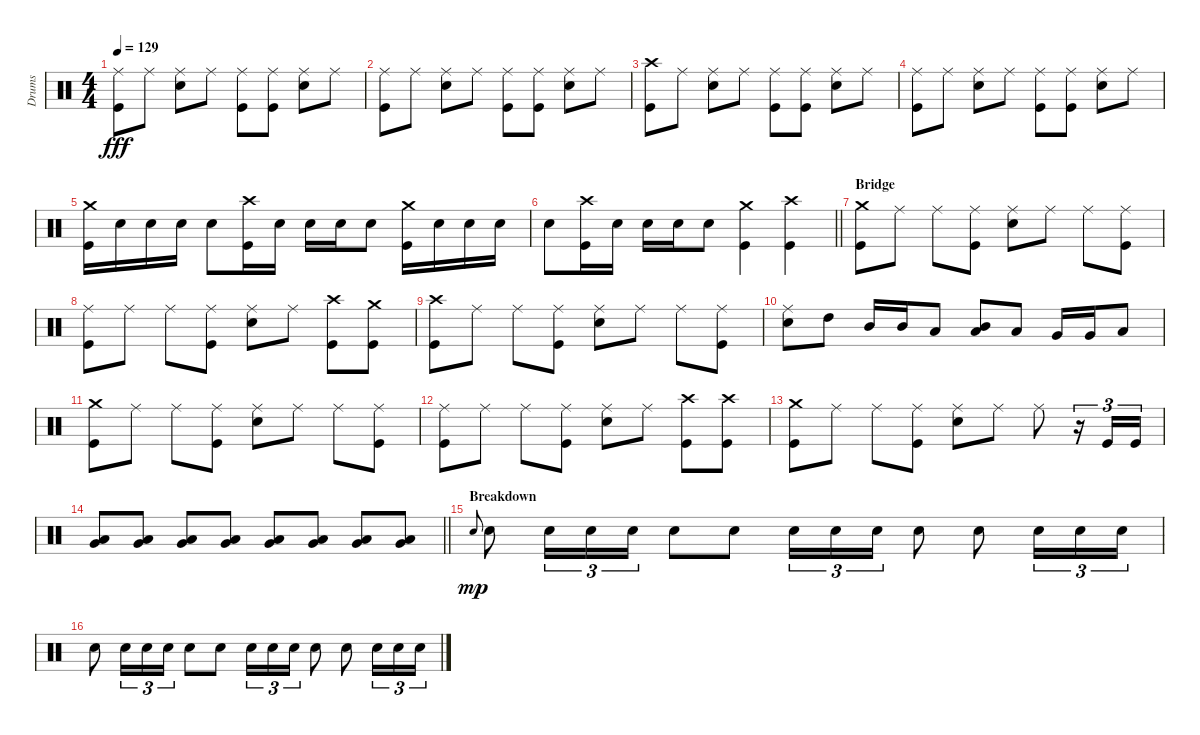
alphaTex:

\track ("Drums" "Drums") {instrument percussion}
\staff {score}
\articulation defaults
\ts (4 4)
\tempo 129
\clef neutral
\ks c
("Ride (middle)" "Kick (hit)").8{dy fff} "Ride (middle)".8 ("Ride (middle)" "Snare (hit) 2").8 "Ride (middle)".8 ("Ride (middle)" "Kick (hit)").8 ("Ride (middle)" "Kick (hit)").8 ("Ride (middle)" "Snare (hit) 2").8 "Ride (middle)".8 |
("Ride (middle)" "Kick (hit)").8 "Ride (middle)".8 ("Ride (middle)" "Snare (hit) 2").8 "Ride (middle)".8 ("Ride (middle)" "Kick (hit)").8 ("Ride (middle)" "Kick (hit)").8 ("Ride (middle)" "Snare (hit) 2").8 "Ride (middle)".8 |
("Crash high (hit)" "Kick (hit)").8 "Ride (middle)".8 ("Ride (middle)" "Snare (hit) 2").8 "Ride (middle)".8 ("Ride (middle)" "Kick (hit)").8 ("Ride (middle)" "Kick (hit)").8 ("Ride (middle)" "Snare (hit) 2").8 "Ride (middle)".8 |
("Ride (middle)" "Kick (hit)").8 "Ride (middle)".8 ("Ride (middle)" "Snare (hit) 2").8 "Ride (middle)".8 ("Ride (middle)" "Kick (hit)").8 ("Ride (middle)" "Kick (hit)").8 ("Ride (middle)" "Snare (hit) 2").8 "Ride (middle)".8 |
("Crash medium (hit)" "Kick (hit)").16 "Snare (hit) 2".16 "Snare (hit) 2".16 "Snare (hit) 2".16 "Snare (hit) 2".8 ("Crash high (hit)" "Kick (hit)").16 "Snare (hit) 2".16 "Snare (hit) 2".16 "Snare (hit) 2".16 "Snare (hit) 2".8 ("Crash medium (hit)" "Kick (hit)").16 "Snare (hit) 2".16 "Snare (hit) 2".16 "Snare (hit) 2".16 |
\barLineRight lightlight "Snare (hit) 2".8
("Crash high (hit)" "Kick (hit)").16 "Snare (hit) 2".16 "Snare (hit) 2".16 "Snare (hit) 2".16 "Snare (hit) 2".8 ("Crash medium (hit)" "Kick (hit)").4 ("Crash high (hit)" "Kick (hit)").4 |
\section ("" "Bridge")
("Crash medium (hit)" "Kick (hit)").8 "Ride (middle)".8 "Ride (middle)".8 ("Ride (middle)" "Kick (hit)").8 ("Ride (middle)" "Snare (hit) 2").8 "Ride (middle)".8 "Ride (middle)".8 ("Ride (middle)" "Kick (hit)").8 |
("Ride (middle)" "Kick (hit)").8 "Ride (middle)".8 "Ride (middle)".8 ("Ride (middle)" "Kick (hit)").8 ("Ride (middle)" "Snare (hit) 2").8 "Ride (middle)".8 ("Crash high (hit)" "Kick (hit)").8 ("Crash medium (hit)" "Kick (hit)").8 |
("Crash high (hit)" "Kick (hit)").8 "Ride (middle)".8 "Ride (middle)".8 ("Ride (middle)" "Kick (hit)").8 ("Ride (middle)" "Snare (hit) 2").8 "Ride (middle)".8 "Ride (middle)".8 ("Ride (middle)" "Kick (hit)").8 |
("Ride (middle)" "Snare (hit) 2").8 "High Tom (hit)".8 "Mid Tom (hit)".16 "Mid Tom (hit)".16 "Low Tom (hit)".8 ("Mid Tom (hit)" "Low Tom (hit)").8 "Low Tom (hit)".8 "Very Low Tom (hit)".16 "Very Low Tom (hit)".16 "Low Floor Tom (hit)".8 |
("Crash medium (hit)" "Kick (hit)").8 "Ride (middle)".8 "Ride (middle)".8 ("Ride (middle)" "Kick (hit)").8 ("Ride (middle)" "Snare (hit) 2").8 "Ride (middle)".8 "Ride (middle)".8 ("Ride (middle)" "Kick (hit)").8 |
("Ride (middle)" "Kick (hit)").8 "Ride (middle)".8 "Ride (middle)".8 ("Ride (middle)" "Kick (hit)").8 ("Ride (middle)" "Snare (hit) 2").8 "Ride (middle)".8 ("Crash high (hit)" "Kick (hit)").8 ("Crash high (hit)" "Kick (hit)").8 |
("Crash medium (hit)" "Kick (hit)").8 "Ride (middle)".8 "Ride (middle)".8 ("Ride (middle)" "Kick (hit)").8 ("Ride (middle)" "Snare (hit) 2").8 "Ride (middle)".8 "Ride (middle)".8 r.16{tu (3 2)} "Kick (hit)".16{tu (3 2)} "Kick (hit)".16{tu (3 2)} |
\barLineRight lightlight
("Very Low Tom (hit)" "Low Floor Tom (hit)").8 ("Very Low Tom (hit)" "Low Floor Tom (hit)").8 ("Very Low Tom (hit)" "Low Floor Tom (hit)").8 ("Very Low Tom (hit)" "Low Floor Tom (hit)").8 ("Very Low Tom (hit)" "Low Floor Tom (hit)").8 ("Very Low Tom (hit)" "Low Floor Tom (hit)").8 ("Very Low Tom (hit)" "Low Floor Tom (hit)").8 ("Very Low Tom (hit)" "Low Floor Tom (hit)").8 |
\section ("" "Breakdown")
"Snare (hit) 2".8{gr onbeat dy mp} "Snare (hit) 2".8 "Snare (hit) 2".16{tu (3 2)} "Snare (hit) 2".16{tu (3 2)} "Snare (hit) 2".16{tu (3 2)} "Snare (hit) 2".8 "Snare (hit) 2".8 "Snare (hit) 2".16{tu (3 2)} "Snare (hit) 2".16{tu (3 2)} "Snare (hit) 2".16{tu (3 2)} "Snare (hit) 2".8 "Snare (hit) 2".8 "Snare (hit) 2".16{tu (3 2)} "Snare (hit) 2".16{tu (3 2)} "Snare (hit) 2".16{tu (3 2)} |
"Snare (hit) 2".8 "Snare (hit) 2".16{tu (3 2)} "Snare (hit) 2".16{tu (3 2)} "Snare (hit) 2".16{tu (3 2)} "Snare (hit) 2".8 "Snare (hit) 2".8 "Snare (hit) 2".16{tu (3 2)} "Snare (hit) 2".16{tu (3 2)} "Snare (hit) 2".16{tu (3 2)} "Snare (hit) 2".8 "Snare (hit) 2".8 "Snare (hit) 2".16{tu (3 2)} "Snare (hit) 2".16{tu (3 2)} "Snare (hit) 2".16{tu (3 2)}
